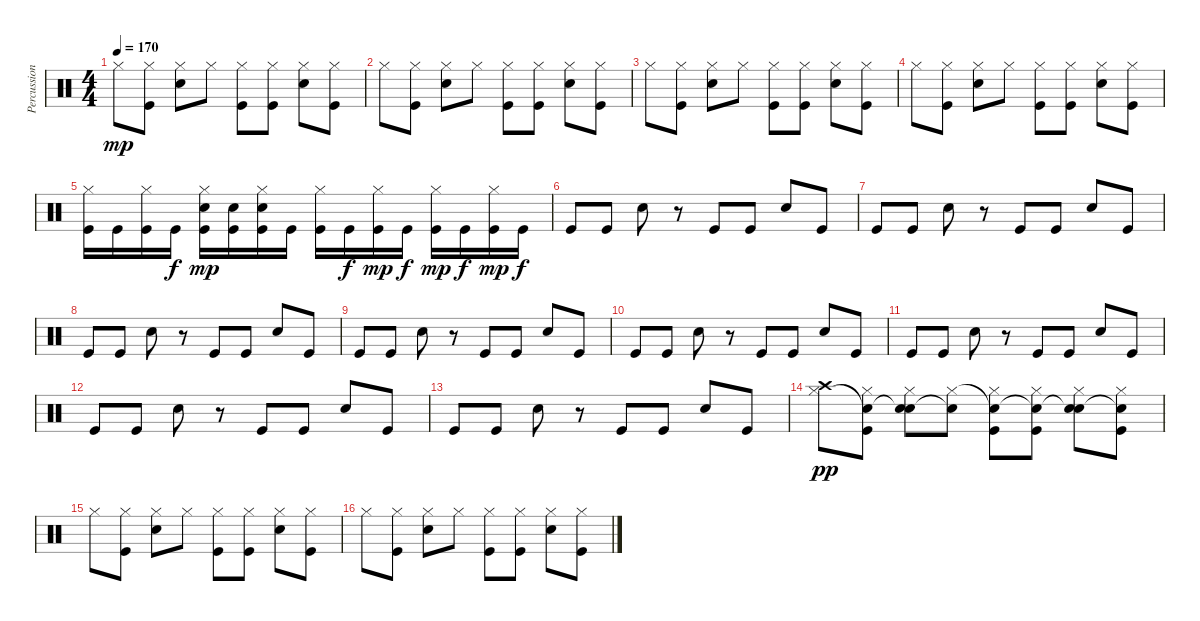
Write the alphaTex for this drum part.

\track ("Percussion" "Percussion") {instrument percussion}
\staff {score}
\articulation defaults
\ts (4 4)
\tempo 170
\clef neutral
\ks c "Hi-Hat (closed)".8{dy mp}
("Kick (hit)" "Hi-Hat (closed)").8 ("Electric Snare (hit)" "Hi-Hat (closed)").8 "Hi-Hat (closed)".8 ("Kick (hit)" "Hi-Hat (closed)").8 ("Kick (hit)" "Hi-Hat (closed)").8 ("Electric Snare (hit)" "Hi-Hat (closed)").8 ("Kick (hit)" "Hi-Hat (closed)").8 |
"Hi-Hat (closed)".8 ("Kick (hit)" "Hi-Hat (closed)").8 ("Electric Snare (hit)" "Hi-Hat (closed)").8 "Hi-Hat (closed)".8 ("Kick (hit)" "Hi-Hat (closed)").8 ("Kick (hit)" "Hi-Hat (closed)").8 ("Electric Snare (hit)" "Hi-Hat (closed)").8 ("Kick (hit)" "Hi-Hat (closed)").8 |
"Hi-Hat (closed)".8 ("Kick (hit)" "Hi-Hat (closed)").8 ("Electric Snare (hit)" "Hi-Hat (closed)").8 "Hi-Hat (closed)".8 ("Kick (hit)" "Hi-Hat (closed)").8 ("Kick (hit)" "Hi-Hat (closed)").8 ("Electric Snare (hit)" "Hi-Hat (closed)").8 ("Kick (hit)" "Hi-Hat (closed)").8 |
"Hi-Hat (closed)".8 ("Kick (hit)" "Hi-Hat (closed)").8 ("Electric Snare (hit)" "Hi-Hat (closed)").8 "Hi-Hat (closed)".8 ("Kick (hit)" "Hi-Hat (closed)").8 ("Kick (hit)" "Hi-Hat (closed)").8 ("Electric Snare (hit)" "Hi-Hat (closed)").8 ("Kick (hit)" "Hi-Hat (closed)").8 |
("Kick (hit)" "Hi-Hat (closed)").16 "Kick (hit)".16 ("Kick (hit)" "Hi-Hat (closed)").16 "Kick (hit)".16{dy f} ("Kick (hit)" "Electric Snare (hit)" "Hi-Hat (closed)").16{dy mp} ("Kick (hit)" "Electric Snare (hit)").16 ("Kick (hit)" "Electric Snare (hit)" "Hi-Hat (closed)").16 "Kick (hit)".16 ("Kick (hit)" "Hi-Hat (closed)").16 "Kick (hit)".16{dy f} ("Kick (hit)" "Hi-Hat (closed)").16{dy mp} "Kick (hit)".16{dy f} ("Kick (hit)" "Hi-Hat (closed)").16{dy mp} "Kick (hit)".16{dy f} ("Kick (hit)" "Hi-Hat (closed)").16{dy mp} "Kick (hit)".16{dy f} |
"Kick (hit)".8 "Kick (hit)".8 "Electric Snare (hit)".8 r.8 "Kick (hit)".8 "Kick (hit)".8 "Electric Snare (hit)".8 "Kick (hit)".8 |
"Kick (hit)".8 "Kick (hit)".8 "Electric Snare (hit)".8 r.8 "Kick (hit)".8 "Kick (hit)".8 "Electric Snare (hit)".8 "Kick (hit)".8 |
"Kick (hit)".8 "Kick (hit)".8 "Electric Snare (hit)".8 r.8 "Kick (hit)".8 "Kick (hit)".8 "Electric Snare (hit)".8 "Kick (hit)".8 |
"Kick (hit)".8 "Kick (hit)".8 "Electric Snare (hit)".8 r.8 "Kick (hit)".8 "Kick (hit)".8 "Electric Snare (hit)".8 "Kick (hit)".8 |
"Kick (hit)".8 "Kick (hit)".8 "Electric Snare (hit)".8 r.8 "Kick (hit)".8 "Kick (hit)".8 "Electric Snare (hit)".8 "Kick (hit)".8 |
"Kick (hit)".8 "Kick (hit)".8 "Electric Snare (hit)".8 r.8 "Kick (hit)".8 "Kick (hit)".8 "Electric Snare (hit)".8 "Kick (hit)".8 |
"Kick (hit)".8 "Kick (hit)".8 "Electric Snare (hit)".8 r.8 "Kick (hit)".8 "Kick (hit)".8 "Electric Snare (hit)".8 "Kick (hit)".8 |
"Kick (hit)".8 "Kick (hit)".8 "Electric Snare (hit)".8 r.8 "Kick (hit)".8 "Kick (hit)".8 "Electric Snare (hit)".8 "Kick (hit)".8 |
("Crash high (hit)" "Hi-Hat (closed)").8{dy pp} ("Kick (hit)" "Snare (hit)"{t} "Hi-Hat (closed)").8 ("Electric Snare (hit)" "Snare (hit)"{t} "Hi-Hat (closed)").8 ("Snare (hit)"{t} "Hi-Hat (closed)").8 ("Kick (hit)" "Snare (hit)"{t} "Hi-Hat (closed)").8 ("Kick (hit)" "Snare (hit)"{t} "Hi-Hat (closed)").8 ("Electric Snare (hit)" "Snare (hit)"{t} "Hi-Hat (closed)").8 ("Kick (hit)" "Snare (hit)"{t} "Hi-Hat (closed)").8 |
"Hi-Hat (closed)".8 ("Kick (hit)" "Hi-Hat (closed)").8 ("Electric Snare (hit)" "Hi-Hat (closed)").8 "Hi-Hat (closed)".8 ("Kick (hit)" "Hi-Hat (closed)").8 ("Kick (hit)" "Hi-Hat (closed)").8 ("Electric Snare (hit)" "Hi-Hat (closed)").8 ("Kick (hit)" "Hi-Hat (closed)").8 |
"Hi-Hat (closed)".8 ("Kick (hit)" "Hi-Hat (closed)").8 ("Electric Snare (hit)" "Hi-Hat (closed)").8 "Hi-Hat (closed)".8 ("Kick (hit)" "Hi-Hat (closed)").8 ("Kick (hit)" "Hi-Hat (closed)").8 ("Electric Snare (hit)" "Hi-Hat (closed)").8 ("Kick (hit)" "Hi-Hat (closed)").8
